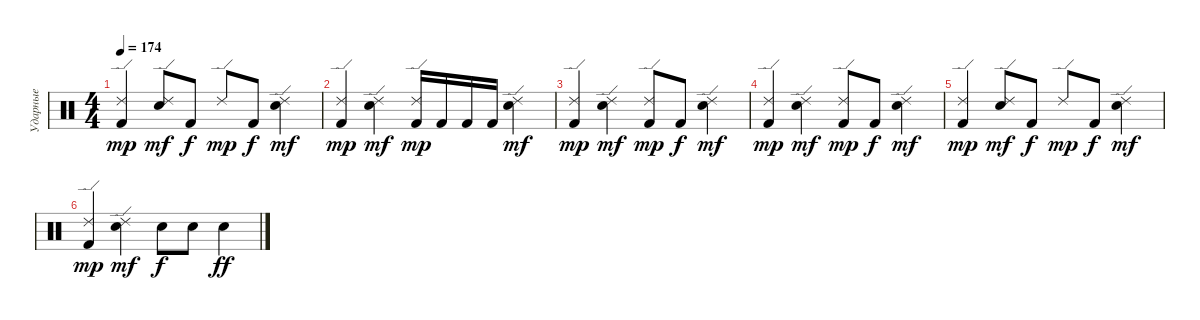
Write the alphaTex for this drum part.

\track ("Ударные" "Ударные") {instrument percussion}
\staff {score}
\articulation defaults
\ts (4 4)
\tempo 174
\clef neutral
\ks c
("Ride (edge) 2" "Kick (hit) 2").4{dy mp} ("Ride (edge) 2" "Electric Snare (hit)").8{dy mf} "Kick (hit) 2".8{dy f} "Ride (edge) 2".8{dy mp} "Kick (hit) 2".8{dy f} ("Ride (edge) 2" "Electric Snare (hit)").4{dy mf} |
("Ride (edge) 2" "Kick (hit) 2").4{dy mp} ("Ride (edge) 2" "Electric Snare (hit)").4{dy mf} ("Ride (edge) 2" "Kick (hit) 2").16{dy mp} "Kick (hit) 2".16 "Kick (hit) 2".16 "Kick (hit) 2".16 ("Ride (edge) 2" "Electric Snare (hit)").4{dy mf} |
("Ride (edge) 2" "Kick (hit) 2").4{dy mp} ("Ride (edge) 2" "Electric Snare (hit)").4{dy mf} ("Ride (edge) 2" "Kick (hit) 2").8{dy mp} "Kick (hit) 2".8{dy f} ("Ride (edge) 2" "Electric Snare (hit)").4{dy mf} |
("Ride (edge) 2" "Kick (hit) 2").4{dy mp} ("Ride (edge) 2" "Electric Snare (hit)").4{dy mf} ("Ride (edge) 2" "Kick (hit) 2").8{dy mp} "Kick (hit) 2".8{dy f} ("Ride (edge) 2" "Electric Snare (hit)").4{dy mf} |
("Ride (edge) 2" "Kick (hit) 2").4{dy mp} ("Ride (edge) 2" "Electric Snare (hit)").8{dy mf} "Kick (hit) 2".8{dy f} "Ride (edge) 2".8{dy mp} "Kick (hit) 2".8{dy f} ("Ride (edge) 2" "Electric Snare (hit)").4{dy mf} |
("Ride (edge) 2" "Kick (hit) 2").4{dy mp} ("Ride (edge) 2" "Electric Snare (hit)").4{dy mf} "Electric Snare (hit)".8{dy f} "Electric Snare (hit)".8 "Electric Snare (hit)".4{dy ff}
